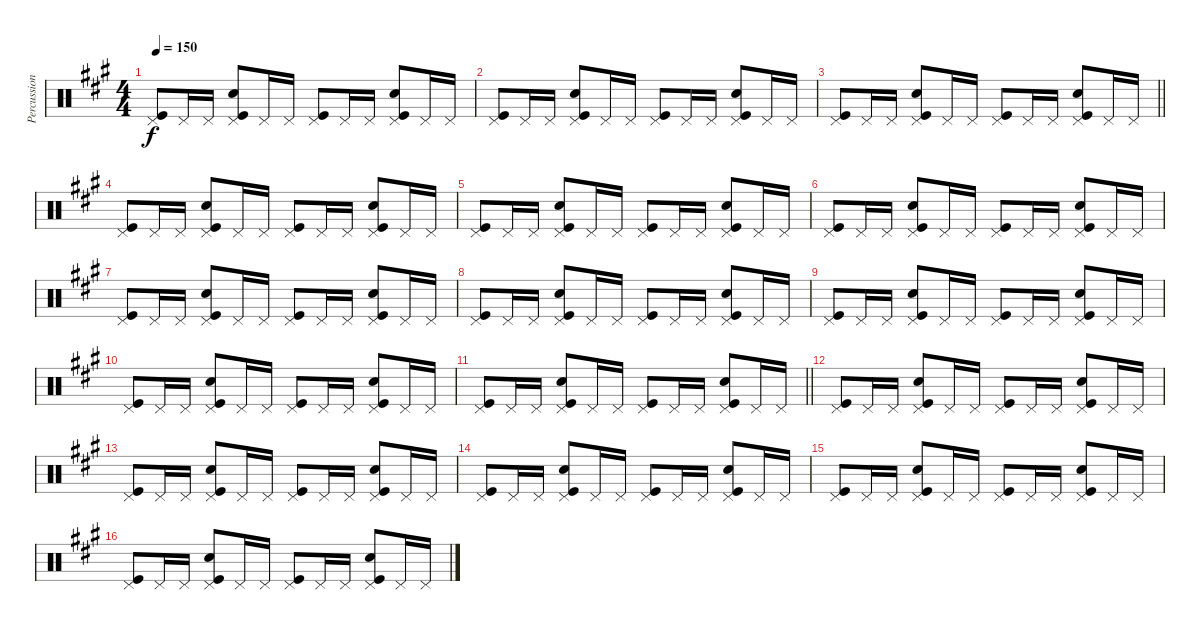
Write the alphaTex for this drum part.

\track ("Percussions" "Percussion") {instrument percussion}
\staff {score}
\articulation defaults
\ts (4 4)
\tempo 150
\clef neutral
\ks a
("Kick (hit)" "Pedal Hi-Hat (hit)").8{dy f} "Pedal Hi-Hat (hit)".16 "Pedal Hi-Hat (hit)".16 ("Snare (hit) 2" "Kick (hit)" "Pedal Hi-Hat (hit)").8 "Pedal Hi-Hat (hit)".16 "Pedal Hi-Hat (hit)".16 ("Kick (hit)" "Pedal Hi-Hat (hit)").8 "Pedal Hi-Hat (hit)".16 "Pedal Hi-Hat (hit)".16 ("Snare (hit) 2" "Kick (hit)" "Pedal Hi-Hat (hit)").8 "Pedal Hi-Hat (hit)".16 "Pedal Hi-Hat (hit)".16 |
("Kick (hit)" "Pedal Hi-Hat (hit)").8 "Pedal Hi-Hat (hit)".16 "Pedal Hi-Hat (hit)".16 ("Snare (hit) 2" "Kick (hit)" "Pedal Hi-Hat (hit)").8 "Pedal Hi-Hat (hit)".16 "Pedal Hi-Hat (hit)".16 ("Kick (hit)" "Pedal Hi-Hat (hit)").8 "Pedal Hi-Hat (hit)".16 "Pedal Hi-Hat (hit)".16 ("Snare (hit) 2" "Kick (hit)" "Pedal Hi-Hat (hit)").8 "Pedal Hi-Hat (hit)".16 "Pedal Hi-Hat (hit)".16 |
\barLineRight lightlight
("Kick (hit)" "Pedal Hi-Hat (hit)").8 "Pedal Hi-Hat (hit)".16 "Pedal Hi-Hat (hit)".16 ("Snare (hit) 2" "Kick (hit)" "Pedal Hi-Hat (hit)").8 "Pedal Hi-Hat (hit)".16 "Pedal Hi-Hat (hit)".16 ("Kick (hit)" "Pedal Hi-Hat (hit)").8 "Pedal Hi-Hat (hit)".16 "Pedal Hi-Hat (hit)".16 ("Snare (hit) 2" "Kick (hit)" "Pedal Hi-Hat (hit)").8 "Pedal Hi-Hat (hit)".16 "Pedal Hi-Hat (hit)".16 |
("Kick (hit)" "Pedal Hi-Hat (hit)").8 "Pedal Hi-Hat (hit)".16 "Pedal Hi-Hat (hit)".16 ("Snare (hit) 2" "Kick (hit)" "Pedal Hi-Hat (hit)").8 "Pedal Hi-Hat (hit)".16 "Pedal Hi-Hat (hit)".16 ("Kick (hit)" "Pedal Hi-Hat (hit)").8 "Pedal Hi-Hat (hit)".16 "Pedal Hi-Hat (hit)".16 ("Snare (hit) 2" "Kick (hit)" "Pedal Hi-Hat (hit)").8 "Pedal Hi-Hat (hit)".16 "Pedal Hi-Hat (hit)".16 |
("Kick (hit)" "Pedal Hi-Hat (hit)").8 "Pedal Hi-Hat (hit)".16 "Pedal Hi-Hat (hit)".16 ("Snare (hit) 2" "Kick (hit)" "Pedal Hi-Hat (hit)").8 "Pedal Hi-Hat (hit)".16 "Pedal Hi-Hat (hit)".16 ("Kick (hit)" "Pedal Hi-Hat (hit)").8 "Pedal Hi-Hat (hit)".16 "Pedal Hi-Hat (hit)".16 ("Snare (hit) 2" "Kick (hit)" "Pedal Hi-Hat (hit)").8 "Pedal Hi-Hat (hit)".16 "Pedal Hi-Hat (hit)".16 |
("Kick (hit)" "Pedal Hi-Hat (hit)").8 "Pedal Hi-Hat (hit)".16 "Pedal Hi-Hat (hit)".16 ("Snare (hit) 2" "Kick (hit)" "Pedal Hi-Hat (hit)").8 "Pedal Hi-Hat (hit)".16 "Pedal Hi-Hat (hit)".16 ("Kick (hit)" "Pedal Hi-Hat (hit)").8 "Pedal Hi-Hat (hit)".16 "Pedal Hi-Hat (hit)".16 ("Snare (hit) 2" "Kick (hit)" "Pedal Hi-Hat (hit)").8 "Pedal Hi-Hat (hit)".16 "Pedal Hi-Hat (hit)".16 |
("Kick (hit)" "Pedal Hi-Hat (hit)").8 "Pedal Hi-Hat (hit)".16 "Pedal Hi-Hat (hit)".16 ("Snare (hit) 2" "Kick (hit)" "Pedal Hi-Hat (hit)").8 "Pedal Hi-Hat (hit)".16 "Pedal Hi-Hat (hit)".16 ("Kick (hit)" "Pedal Hi-Hat (hit)").8 "Pedal Hi-Hat (hit)".16 "Pedal Hi-Hat (hit)".16 ("Snare (hit) 2" "Kick (hit)" "Pedal Hi-Hat (hit)").8 "Pedal Hi-Hat (hit)".16 "Pedal Hi-Hat (hit)".16 |
("Kick (hit)" "Pedal Hi-Hat (hit)").8 "Pedal Hi-Hat (hit)".16 "Pedal Hi-Hat (hit)".16 ("Snare (hit) 2" "Kick (hit)" "Pedal Hi-Hat (hit)").8 "Pedal Hi-Hat (hit)".16 "Pedal Hi-Hat (hit)".16 ("Kick (hit)" "Pedal Hi-Hat (hit)").8 "Pedal Hi-Hat (hit)".16 "Pedal Hi-Hat (hit)".16 ("Snare (hit) 2" "Kick (hit)" "Pedal Hi-Hat (hit)").8 "Pedal Hi-Hat (hit)".16 "Pedal Hi-Hat (hit)".16 |
("Kick (hit)" "Pedal Hi-Hat (hit)").8 "Pedal Hi-Hat (hit)".16 "Pedal Hi-Hat (hit)".16 ("Snare (hit) 2" "Kick (hit)" "Pedal Hi-Hat (hit)").8 "Pedal Hi-Hat (hit)".16 "Pedal Hi-Hat (hit)".16 ("Kick (hit)" "Pedal Hi-Hat (hit)").8 "Pedal Hi-Hat (hit)".16 "Pedal Hi-Hat (hit)".16 ("Snare (hit) 2" "Kick (hit)" "Pedal Hi-Hat (hit)").8 "Pedal Hi-Hat (hit)".16 "Pedal Hi-Hat (hit)".16 |
("Kick (hit)" "Pedal Hi-Hat (hit)").8 "Pedal Hi-Hat (hit)".16 "Pedal Hi-Hat (hit)".16 ("Snare (hit) 2" "Kick (hit)" "Pedal Hi-Hat (hit)").8 "Pedal Hi-Hat (hit)".16 "Pedal Hi-Hat (hit)".16 ("Kick (hit)" "Pedal Hi-Hat (hit)").8 "Pedal Hi-Hat (hit)".16 "Pedal Hi-Hat (hit)".16 ("Snare (hit) 2" "Kick (hit)" "Pedal Hi-Hat (hit)").8 "Pedal Hi-Hat (hit)".16 "Pedal Hi-Hat (hit)".16 |
\barLineRight lightlight
("Kick (hit)" "Pedal Hi-Hat (hit)").8 "Pedal Hi-Hat (hit)".16 "Pedal Hi-Hat (hit)".16 ("Snare (hit) 2" "Kick (hit)" "Pedal Hi-Hat (hit)").8 "Pedal Hi-Hat (hit)".16 "Pedal Hi-Hat (hit)".16 ("Kick (hit)" "Pedal Hi-Hat (hit)").8 "Pedal Hi-Hat (hit)".16 "Pedal Hi-Hat (hit)".16 ("Snare (hit) 2" "Kick (hit)" "Pedal Hi-Hat (hit)").8 "Pedal Hi-Hat (hit)".16 "Pedal Hi-Hat (hit)".16 |
("Kick (hit)" "Pedal Hi-Hat (hit)").8 "Pedal Hi-Hat (hit)".16 "Pedal Hi-Hat (hit)".16 ("Snare (hit) 2" "Kick (hit)" "Pedal Hi-Hat (hit)").8 "Pedal Hi-Hat (hit)".16 "Pedal Hi-Hat (hit)".16 ("Kick (hit)" "Pedal Hi-Hat (hit)").8 "Pedal Hi-Hat (hit)".16 "Pedal Hi-Hat (hit)".16 ("Snare (hit) 2" "Kick (hit)" "Pedal Hi-Hat (hit)").8 "Pedal Hi-Hat (hit)".16 "Pedal Hi-Hat (hit)".16 |
("Kick (hit)" "Pedal Hi-Hat (hit)").8 "Pedal Hi-Hat (hit)".16 "Pedal Hi-Hat (hit)".16 ("Snare (hit) 2" "Kick (hit)" "Pedal Hi-Hat (hit)").8 "Pedal Hi-Hat (hit)".16 "Pedal Hi-Hat (hit)".16 ("Kick (hit)" "Pedal Hi-Hat (hit)").8 "Pedal Hi-Hat (hit)".16 "Pedal Hi-Hat (hit)".16 ("Snare (hit) 2" "Kick (hit)" "Pedal Hi-Hat (hit)").8 "Pedal Hi-Hat (hit)".16 "Pedal Hi-Hat (hit)".16 |
("Kick (hit)" "Pedal Hi-Hat (hit)").8 "Pedal Hi-Hat (hit)".16 "Pedal Hi-Hat (hit)".16 ("Snare (hit) 2" "Kick (hit)" "Pedal Hi-Hat (hit)").8 "Pedal Hi-Hat (hit)".16 "Pedal Hi-Hat (hit)".16 ("Kick (hit)" "Pedal Hi-Hat (hit)").8 "Pedal Hi-Hat (hit)".16 "Pedal Hi-Hat (hit)".16 ("Snare (hit) 2" "Kick (hit)" "Pedal Hi-Hat (hit)").8 "Pedal Hi-Hat (hit)".16 "Pedal Hi-Hat (hit)".16 |
("Kick (hit)" "Pedal Hi-Hat (hit)").8 "Pedal Hi-Hat (hit)".16 "Pedal Hi-Hat (hit)".16 ("Snare (hit) 2" "Kick (hit)" "Pedal Hi-Hat (hit)").8 "Pedal Hi-Hat (hit)".16 "Pedal Hi-Hat (hit)".16 ("Kick (hit)" "Pedal Hi-Hat (hit)").8 "Pedal Hi-Hat (hit)".16 "Pedal Hi-Hat (hit)".16 ("Snare (hit) 2" "Kick (hit)" "Pedal Hi-Hat (hit)").8 "Pedal Hi-Hat (hit)".16 "Pedal Hi-Hat (hit)".16 |
("Kick (hit)" "Pedal Hi-Hat (hit)").8 "Pedal Hi-Hat (hit)".16 "Pedal Hi-Hat (hit)".16 ("Snare (hit) 2" "Kick (hit)" "Pedal Hi-Hat (hit)").8 "Pedal Hi-Hat (hit)".16 "Pedal Hi-Hat (hit)".16 ("Kick (hit)" "Pedal Hi-Hat (hit)").8 "Pedal Hi-Hat (hit)".16 "Pedal Hi-Hat (hit)".16 ("Snare (hit) 2" "Kick (hit)" "Pedal Hi-Hat (hit)").8 "Pedal Hi-Hat (hit)".16 "Pedal Hi-Hat (hit)".16
